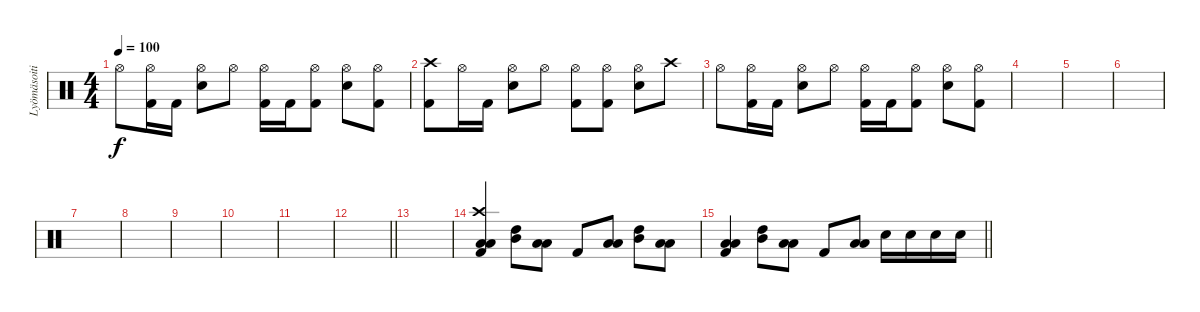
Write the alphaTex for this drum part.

\track ("Lyömäsoitin" "Lyömäsoiti") {instrument percussion}
\staff {score}
\articulation defaults
\ts (4 4)
\tempo 100
\clef neutral
\ks c "Hi-Hat (open)".8{dy f}
("Hi-Hat (open)" "Kick (hit) 2").16 "Kick (hit) 2".16 ("Hi-Hat (open)" "Snare (hit) 2").8 "Hi-Hat (open)".8 ("Hi-Hat (open)" "Kick (hit) 2").16 "Kick (hit) 2".16 ("Hi-Hat (open)" "Kick (hit) 2").8 ("Hi-Hat (open)" "Snare (hit) 2").8 ("Hi-Hat (open)" "Kick (hit) 2").8 |
("Crash high (hit)" "Kick (hit) 2").8 "Hi-Hat (open)".16 "Kick (hit) 2".16 ("Hi-Hat (open)" "Snare (hit) 2").8 "Hi-Hat (open)".8 ("Hi-Hat (open)" "Kick (hit) 2").8 ("Hi-Hat (open)" "Kick (hit) 2").8 ("Hi-Hat (open)" "Snare (hit) 2").8 "Crash high (hit)".8 |
"Hi-Hat (open)".8 ("Hi-Hat (open)" "Kick (hit) 2").16 "Kick (hit) 2".16 ("Hi-Hat (open)" "Snare (hit) 2").8 "Hi-Hat (open)".8 ("Hi-Hat (open)" "Kick (hit) 2").16 "Kick (hit) 2".16 ("Hi-Hat (open)" "Kick (hit) 2").8 ("Hi-Hat (open)" "Snare (hit) 2").8 ("Hi-Hat (open)" "Kick (hit) 2").8 |
|
|
|
|
|
|
|
|
\barLineRight lightlight
|
|
("Crash high (hit)" "Low Tom (hit)" "Low Tom (hit)" "Kick (hit) 2").4 ("Mid Tom (hit)" "High Tom (hit)").8 ("Low Tom (hit)" "Low Tom (hit)").8 "Kick (hit) 2".8 ("Low Tom (hit)" "Low Tom (hit)").8 ("High Tom (hit)" "Mid Tom (hit)").8 ("Low Tom (hit)" "Low Tom (hit)").8 |
\barLineRight lightlight
("Low Tom (hit)" "Low Tom (hit)" "Kick (hit) 2").4 ("Mid Tom (hit)" "High Tom (hit)").8 ("Low Tom (hit)" "Low Tom (hit)").8 "Kick (hit) 2".8 ("Low Tom (hit)" "Low Tom (hit)").8 "Snare (hit) 2".16 "Snare (hit) 2".16 "Snare (hit) 2".16 "Snare (hit) 2".16
